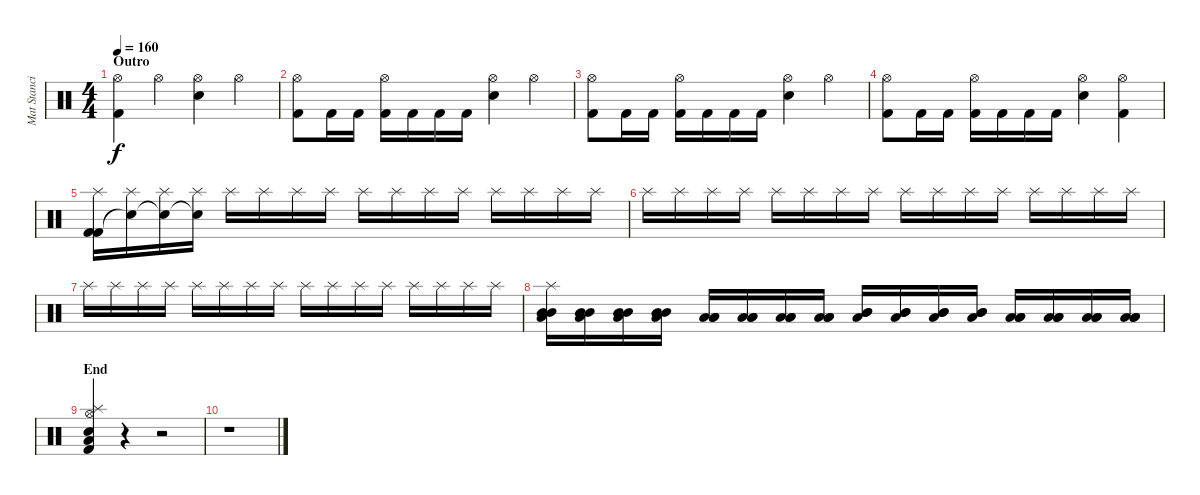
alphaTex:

\track ("Mat Stancioiu" "Mat Stanci") {instrument percussion}
\staff {score}
\articulation defaults
\ts (4 4)
\section ("" "Outro")
\tempo 160
\clef neutral
\ks c
("Kick (hit) 2" "Hi-Hat (open)").4{dy f} "Hi-Hat (open)".4 ("Electric Snare (hit)" "Hi-Hat (open)").4 "Hi-Hat (open)".4 |
("Kick (hit) 2" "Hi-Hat (open)").8 "Kick (hit) 2".16 "Kick (hit) 2".16 ("Kick (hit) 2" "Hi-Hat (open)").16 "Kick (hit) 2".16 "Kick (hit) 2".16 "Kick (hit) 2".16 ("Electric Snare (hit)" "Hi-Hat (open)").4 "Hi-Hat (open)".4 |
("Kick (hit) 2" "Hi-Hat (open)").8 "Kick (hit) 2".16 "Kick (hit) 2".16 ("Kick (hit) 2" "Hi-Hat (open)").16 "Kick (hit) 2".16 "Kick (hit) 2".16 "Kick (hit) 2".16 ("Electric Snare (hit)" "Hi-Hat (open)").4 "Hi-Hat (open)".4 |
("Kick (hit) 2" "Hi-Hat (open)").8 "Kick (hit) 2".16 "Kick (hit) 2".16 ("Kick (hit) 2" "Hi-Hat (open)").16 "Kick (hit) 2".16 "Kick (hit) 2".16 "Kick (hit) 2".16 ("Electric Snare (hit)" "Hi-Hat (open)").4 ("Kick (hit) 2" "Hi-Hat (open)").4 |
("Kick (hit) 2" "Splash (hit)" "Kick (hit) 2").16 ("Snare (hit)"{t} "Splash (hit)").16{volume 12} ("Snare (hit)"{t} "Splash (hit)").16 ("Snare (hit)"{t} "Splash (hit)").16 "Splash (hit)".16 "Splash (hit)".16 "Splash (hit)".16 "Splash (hit)".16 "Splash (hit)".16 "Splash (hit)".16 "Splash (hit)".16 "Splash (hit)".16 "Splash (hit)".16 "Splash (hit)".16 "Splash (hit)".16 "Splash (hit)".16 |
"Splash (hit)".16 "Splash (hit)".16 "Splash (hit)".16 "Splash (hit)".16 "Splash (hit)".16 "Splash (hit)".16 "Splash (hit)".16 "Splash (hit)".16 "Splash (hit)".16 "Splash (hit)".16 "Splash (hit)".16 "Splash (hit)".16 "Splash (hit)".16 "Splash (hit)".16 "Splash (hit)".16 "Splash (hit)".16 |
"Splash (hit)".16 "Splash (hit)".16 "Splash (hit)".16 "Splash (hit)".16 "Splash (hit)".16 "Splash (hit)".16 "Splash (hit)".16 "Splash (hit)".16 "Splash (hit)".16 "Splash (hit)".16 "Splash (hit)".16 "Splash (hit)".16 "Splash (hit)".16 "Splash (hit)".16 "Splash (hit)".16 "Splash (hit)".16 |
("Mid Tom (hit)" "Mid Tom (hit)" "Low Tom (hit)" "Splash (hit)").16 ("Mid Tom (hit)" "Mid Tom (hit)" "Low Tom (hit)").16 ("Mid Tom (hit)" "Mid Tom (hit)" "Low Tom (hit)").16 ("Mid Tom (hit)" "Mid Tom (hit)" "Low Tom (hit)").16 ("Low Tom (hit)" "Low Tom (hit)" "Low Tom (hit)").16 ("Low Tom (hit)" "Low Tom (hit)" "Low Tom (hit)").16 ("Low Tom (hit)" "Low Tom (hit)" "Low Tom (hit)").16 ("Low Tom (hit)" "Low Tom (hit)" "Low Tom (hit)").16 ("Mid Tom (hit)" "Mid Tom (hit)" "Low Tom (hit)").16 ("Mid Tom (hit)" "Mid Tom (hit)" "Low Tom (hit)").16 ("Mid Tom (hit)" "Mid Tom (hit)" "Low Tom (hit)").16 ("Mid Tom (hit)" "Mid Tom (hit)" "Low Tom (hit)").16 ("Low Floor Tom (hit)" "Low Floor Tom (hit)" "Low Tom (hit)").16 ("Low Floor Tom (hit)" "Low Floor Tom (hit)" "Low Tom (hit)").16 ("Low Floor Tom (hit)" "Low Floor Tom (hit)" "Low Tom (hit)").16 ("Low Floor Tom (hit)" "Low Floor Tom (hit)" "Low Tom (hit)").16 |
\section ("" "End")
("Hi-Hat (open)" "Splash (hit)" "Kick (hit) 2" "Snare (hit) 2" "Low Tom (hit)").4 r.4 r.2 |
r.1
